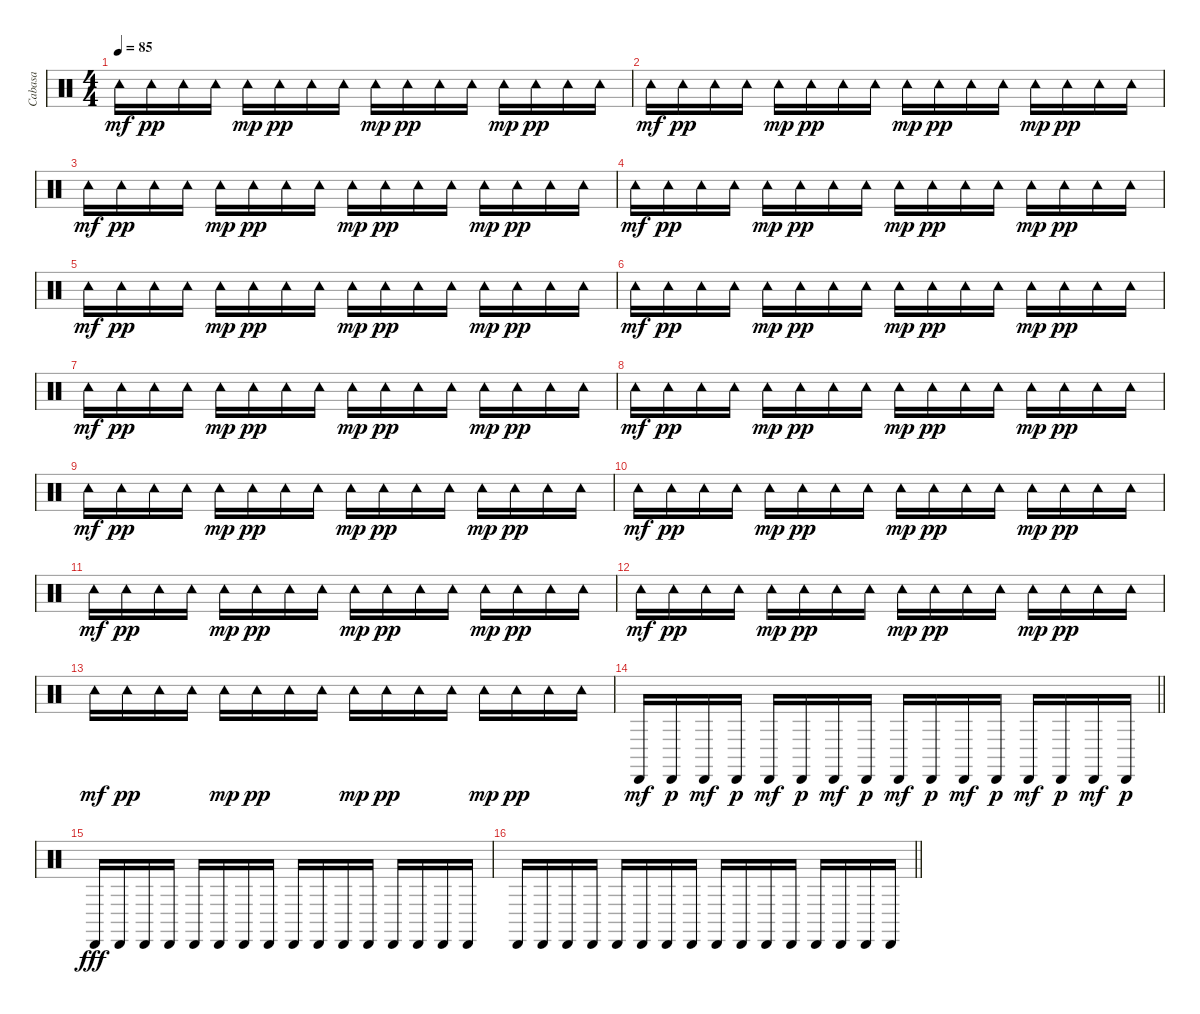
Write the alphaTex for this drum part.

\track ("Cabasa" "Cabasa") {instrument percussion}
\staff {score}
\articulation defaults
\ts (4 4)
\tempo 85
\clef neutral
\ks c "Tambourine (hit)".16{dy mf} "Tambourine (hit)".16{dy pp} "Tambourine (hit)".16 "Tambourine (hit)".16 "Tambourine (hit)".16{dy mp} "Tambourine (hit)".16{dy pp} "Tambourine (hit)".16 "Tambourine (hit)".16 "Tambourine (hit)".16{dy mp} "Tambourine (hit)".16{dy pp} "Tambourine (hit)".16 "Tambourine (hit)".16 "Tambourine (hit)".16{dy mp} "Tambourine (hit)".16{dy pp} "Tambourine (hit)".16 "Tambourine (hit)".16
|
"Tambourine (hit)".16{dy mf} "Tambourine (hit)".16{dy pp} "Tambourine (hit)".16 "Tambourine (hit)".16 "Tambourine (hit)".16{dy mp} "Tambourine (hit)".16{dy pp} "Tambourine (hit)".16 "Tambourine (hit)".16 "Tambourine (hit)".16{dy mp} "Tambourine (hit)".16{dy pp} "Tambourine (hit)".16 "Tambourine (hit)".16 "Tambourine (hit)".16{dy mp} "Tambourine (hit)".16{dy pp} "Tambourine (hit)".16 "Tambourine (hit)".16 |
"Tambourine (hit)".16{dy mf} "Tambourine (hit)".16{dy pp} "Tambourine (hit)".16 "Tambourine (hit)".16 "Tambourine (hit)".16{dy mp} "Tambourine (hit)".16{dy pp} "Tambourine (hit)".16 "Tambourine (hit)".16 "Tambourine (hit)".16{dy mp} "Tambourine (hit)".16{dy pp} "Tambourine (hit)".16 "Tambourine (hit)".16 "Tambourine (hit)".16{dy mp} "Tambourine (hit)".16{dy pp} "Tambourine (hit)".16 "Tambourine (hit)".16 |
"Tambourine (hit)".16{dy mf} "Tambourine (hit)".16{dy pp} "Tambourine (hit)".16 "Tambourine (hit)".16 "Tambourine (hit)".16{dy mp} "Tambourine (hit)".16{dy pp} "Tambourine (hit)".16 "Tambourine (hit)".16 "Tambourine (hit)".16{dy mp} "Tambourine (hit)".16{dy pp} "Tambourine (hit)".16 "Tambourine (hit)".16 "Tambourine (hit)".16{dy mp} "Tambourine (hit)".16{dy pp} "Tambourine (hit)".16 "Tambourine (hit)".16 |
"Tambourine (hit)".16{dy mf} "Tambourine (hit)".16{dy pp} "Tambourine (hit)".16 "Tambourine (hit)".16 "Tambourine (hit)".16{dy mp} "Tambourine (hit)".16{dy pp} "Tambourine (hit)".16 "Tambourine (hit)".16 "Tambourine (hit)".16{dy mp} "Tambourine (hit)".16{dy pp} "Tambourine (hit)".16 "Tambourine (hit)".16 "Tambourine (hit)".16{dy mp} "Tambourine (hit)".16{dy pp} "Tambourine (hit)".16 "Tambourine (hit)".16 |
"Tambourine (hit)".16{dy mf} "Tambourine (hit)".16{dy pp} "Tambourine (hit)".16 "Tambourine (hit)".16 "Tambourine (hit)".16{dy mp} "Tambourine (hit)".16{dy pp} "Tambourine (hit)".16 "Tambourine (hit)".16 "Tambourine (hit)".16{dy mp} "Tambourine (hit)".16{dy pp} "Tambourine (hit)".16 "Tambourine (hit)".16 "Tambourine (hit)".16{dy mp} "Tambourine (hit)".16{dy pp} "Tambourine (hit)".16 "Tambourine (hit)".16 |
"Tambourine (hit)".16{dy mf} "Tambourine (hit)".16{dy pp} "Tambourine (hit)".16 "Tambourine (hit)".16 "Tambourine (hit)".16{dy mp} "Tambourine (hit)".16{dy pp} "Tambourine (hit)".16 "Tambourine (hit)".16 "Tambourine (hit)".16{dy mp} "Tambourine (hit)".16{dy pp} "Tambourine (hit)".16 "Tambourine (hit)".16 "Tambourine (hit)".16{dy mp} "Tambourine (hit)".16{dy pp} "Tambourine (hit)".16 "Tambourine (hit)".16 |
"Tambourine (hit)".16{dy mf} "Tambourine (hit)".16{dy pp} "Tambourine (hit)".16 "Tambourine (hit)".16 "Tambourine (hit)".16{dy mp} "Tambourine (hit)".16{dy pp} "Tambourine (hit)".16 "Tambourine (hit)".16 "Tambourine (hit)".16{dy mp} "Tambourine (hit)".16{dy pp} "Tambourine (hit)".16 "Tambourine (hit)".16 "Tambourine (hit)".16{dy mp} "Tambourine (hit)".16{dy pp} "Tambourine (hit)".16 "Tambourine (hit)".16 |
"Tambourine (hit)".16{dy mf} "Tambourine (hit)".16{dy pp} "Tambourine (hit)".16 "Tambourine (hit)".16 "Tambourine (hit)".16{dy mp} "Tambourine (hit)".16{dy pp} "Tambourine (hit)".16 "Tambourine (hit)".16 "Tambourine (hit)".16{dy mp} "Tambourine (hit)".16{dy pp} "Tambourine (hit)".16 "Tambourine (hit)".16 "Tambourine (hit)".16{dy mp} "Tambourine (hit)".16{dy pp} "Tambourine (hit)".16 "Tambourine (hit)".16 |
"Tambourine (hit)".16{dy mf} "Tambourine (hit)".16{dy pp} "Tambourine (hit)".16 "Tambourine (hit)".16 "Tambourine (hit)".16{dy mp} "Tambourine (hit)".16{dy pp} "Tambourine (hit)".16 "Tambourine (hit)".16 "Tambourine (hit)".16{dy mp} "Tambourine (hit)".16{dy pp} "Tambourine (hit)".16 "Tambourine (hit)".16 "Tambourine (hit)".16{dy mp} "Tambourine (hit)".16{dy pp} "Tambourine (hit)".16 "Tambourine (hit)".16 |
"Tambourine (hit)".16{dy mf} "Tambourine (hit)".16{dy pp} "Tambourine (hit)".16 "Tambourine (hit)".16 "Tambourine (hit)".16{dy mp} "Tambourine (hit)".16{dy pp} "Tambourine (hit)".16 "Tambourine (hit)".16 "Tambourine (hit)".16{dy mp} "Tambourine (hit)".16{dy pp} "Tambourine (hit)".16 "Tambourine (hit)".16 "Tambourine (hit)".16{dy mp} "Tambourine (hit)".16{dy pp} "Tambourine (hit)".16 "Tambourine (hit)".16 |
"Tambourine (hit)".16{dy mf} "Tambourine (hit)".16{dy pp} "Tambourine (hit)".16 "Tambourine (hit)".16 "Tambourine (hit)".16{dy mp} "Tambourine (hit)".16{dy pp} "Tambourine (hit)".16 "Tambourine (hit)".16 "Tambourine (hit)".16{dy mp} "Tambourine (hit)".16{dy pp} "Tambourine (hit)".16 "Tambourine (hit)".16 "Tambourine (hit)".16{dy mp} "Tambourine (hit)".16{dy pp} "Tambourine (hit)".16 "Tambourine (hit)".16 |
"Tambourine (hit)".16{dy mf} "Tambourine (hit)".16{dy pp} "Tambourine (hit)".16 "Tambourine (hit)".16 "Tambourine (hit)".16{dy mp} "Tambourine (hit)".16{dy pp} "Tambourine (hit)".16 "Tambourine (hit)".16 "Tambourine (hit)".16{dy mp} "Tambourine (hit)".16{dy pp} "Tambourine (hit)".16 "Tambourine (hit)".16 "Tambourine (hit)".16{dy mp} "Tambourine (hit)".16{dy pp} "Tambourine (hit)".16 "Tambourine (hit)".16 |
\barLineRight lightlight "Cabasa (hit)".16{dy mf} "Cabasa (hit)".16{dy p} "Cabasa (hit)".16{dy mf} "Cabasa (hit)".16{dy p} "Cabasa (hit)".16{dy mf} "Cabasa (hit)".16{dy p} "Cabasa (hit)".16{dy mf} "Cabasa (hit)".16{dy p} "Cabasa (hit)".16{dy mf} "Cabasa (hit)".16{dy p} "Cabasa (hit)".16{dy mf} "Cabasa (hit)".16{dy p} "Cabasa (hit)".16{dy mf} "Cabasa (hit)".16{dy p} "Cabasa (hit)".16{dy mf} "Cabasa (hit)".16{dy p}
|
"Cabasa (hit)".16{dy fff volume 16} "Cabasa (hit)".16 "Cabasa (hit)".16 "Cabasa (hit)".16 "Cabasa (hit)".16 "Cabasa (hit)".16 "Cabasa (hit)".16 "Cabasa (hit)".16 "Cabasa (hit)".16 "Cabasa (hit)".16 "Cabasa (hit)".16 "Cabasa (hit)".16 "Cabasa (hit)".16 "Cabasa (hit)".16 "Cabasa (hit)".16 "Cabasa (hit)".16 |
\barLineRight lightlight "Cabasa (hit)".16 "Cabasa (hit)".16 "Cabasa (hit)".16 "Cabasa (hit)".16 "Cabasa (hit)".16 "Cabasa (hit)".16 "Cabasa (hit)".16 "Cabasa (hit)".16 "Cabasa (hit)".16 "Cabasa (hit)".16 "Cabasa (hit)".16 "Cabasa (hit)".16 "Cabasa (hit)".16 "Cabasa (hit)".16 "Cabasa (hit)".16 "Cabasa (hit)".16
